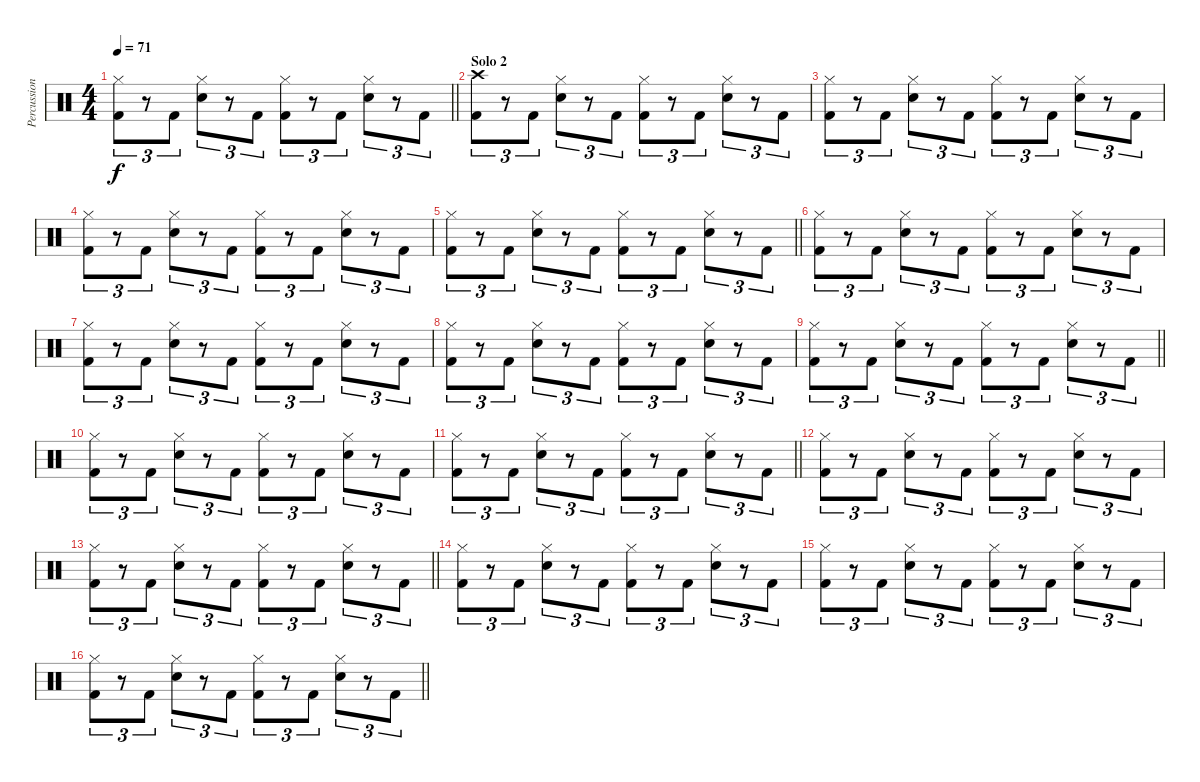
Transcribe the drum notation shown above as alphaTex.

\track ("Percussion" "Percussion") {instrument percussion}
\staff {score}
\articulation defaults
\ts (4 4)
\tempo 71
\clef neutral
\barLineRight lightlight
\ks c
("Hi-Hat (closed)" "Kick (hit) 2").8{tu (3 2) dy f} r.8{tu (3 2)} "Kick (hit) 2".8{tu (3 2)} ("Hi-Hat (closed)" "Snare (hit) 2").8{tu (3 2)} r.8{tu (3 2)} "Kick (hit) 2".8{tu (3 2)} ("Hi-Hat (closed)" "Kick (hit) 2").8{tu (3 2)} r.8{tu (3 2)} "Kick (hit) 2".8{tu (3 2)} ("Hi-Hat (closed)" "Snare (hit) 2").8{tu (3 2)} r.8{tu (3 2)} "Kick (hit) 2".8{tu (3 2)} |
\section ("" "Solo 2")
("Crash high (hit)" "Kick (hit) 2").8{tu (3 2)} r.8{tu (3 2)} "Kick (hit) 2".8{tu (3 2)} ("Hi-Hat (closed)" "Snare (hit) 2").8{tu (3 2)} r.8{tu (3 2)} "Kick (hit) 2".8{tu (3 2)} ("Hi-Hat (closed)" "Kick (hit) 2").8{tu (3 2)} r.8{tu (3 2)} "Kick (hit) 2".8{tu (3 2)} ("Hi-Hat (closed)" "Snare (hit) 2").8{tu (3 2)} r.8{tu (3 2)} "Kick (hit) 2".8{tu (3 2)} |
("Hi-Hat (closed)" "Kick (hit) 2").8{tu (3 2)} r.8{tu (3 2)} "Kick (hit) 2".8{tu (3 2)} ("Hi-Hat (closed)" "Snare (hit) 2").8{tu (3 2)} r.8{tu (3 2)} "Kick (hit) 2".8{tu (3 2)} ("Hi-Hat (closed)" "Kick (hit) 2").8{tu (3 2)} r.8{tu (3 2)} "Kick (hit) 2".8{tu (3 2)} ("Hi-Hat (closed)" "Snare (hit) 2").8{tu (3 2)} r.8{tu (3 2)} "Kick (hit) 2".8{tu (3 2)} |
("Hi-Hat (closed)" "Kick (hit) 2").8{tu (3 2)} r.8{tu (3 2)} "Kick (hit) 2".8{tu (3 2)} ("Hi-Hat (closed)" "Snare (hit) 2").8{tu (3 2)} r.8{tu (3 2)} "Kick (hit) 2".8{tu (3 2)} ("Hi-Hat (closed)" "Kick (hit) 2").8{tu (3 2)} r.8{tu (3 2)} "Kick (hit) 2".8{tu (3 2)} ("Hi-Hat (closed)" "Snare (hit) 2").8{tu (3 2)} r.8{tu (3 2)} "Kick (hit) 2".8{tu (3 2)} |
\barLineRight lightlight
("Hi-Hat (closed)" "Kick (hit) 2").8{tu (3 2)} r.8{tu (3 2)} "Kick (hit) 2".8{tu (3 2)} ("Hi-Hat (closed)" "Snare (hit) 2").8{tu (3 2)} r.8{tu (3 2)} "Kick (hit) 2".8{tu (3 2)} ("Hi-Hat (closed)" "Kick (hit) 2").8{tu (3 2)} r.8{tu (3 2)} "Kick (hit) 2".8{tu (3 2)} ("Hi-Hat (closed)" "Snare (hit) 2").8{tu (3 2)} r.8{tu (3 2)} "Kick (hit) 2".8{tu (3 2)} |
("Hi-Hat (closed)" "Kick (hit) 2").8{tu (3 2)} r.8{tu (3 2)} "Kick (hit) 2".8{tu (3 2)} ("Hi-Hat (closed)" "Snare (hit) 2").8{tu (3 2)} r.8{tu (3 2)} "Kick (hit) 2".8{tu (3 2)} ("Hi-Hat (closed)" "Kick (hit) 2").8{tu (3 2)} r.8{tu (3 2)} "Kick (hit) 2".8{tu (3 2)} ("Hi-Hat (closed)" "Snare (hit) 2").8{tu (3 2)} r.8{tu (3 2)} "Kick (hit) 2".8{tu (3 2)} |
("Hi-Hat (closed)" "Kick (hit) 2").8{tu (3 2)} r.8{tu (3 2)} "Kick (hit) 2".8{tu (3 2)} ("Hi-Hat (closed)" "Snare (hit) 2").8{tu (3 2)} r.8{tu (3 2)} "Kick (hit) 2".8{tu (3 2)} ("Hi-Hat (closed)" "Kick (hit) 2").8{tu (3 2)} r.8{tu (3 2)} "Kick (hit) 2".8{tu (3 2)} ("Hi-Hat (closed)" "Snare (hit) 2").8{tu (3 2)} r.8{tu (3 2)} "Kick (hit) 2".8{tu (3 2)} |
("Hi-Hat (closed)" "Kick (hit) 2").8{tu (3 2)} r.8{tu (3 2)} "Kick (hit) 2".8{tu (3 2)} ("Hi-Hat (closed)" "Snare (hit) 2").8{tu (3 2)} r.8{tu (3 2)} "Kick (hit) 2".8{tu (3 2)} ("Hi-Hat (closed)" "Kick (hit) 2").8{tu (3 2)} r.8{tu (3 2)} "Kick (hit) 2".8{tu (3 2)} ("Hi-Hat (closed)" "Snare (hit) 2").8{tu (3 2)} r.8{tu (3 2)} "Kick (hit) 2".8{tu (3 2)} |
\barLineRight lightlight
("Hi-Hat (closed)" "Kick (hit) 2").8{tu (3 2)} r.8{tu (3 2)} "Kick (hit) 2".8{tu (3 2)} ("Hi-Hat (closed)" "Snare (hit) 2").8{tu (3 2)} r.8{tu (3 2)} "Kick (hit) 2".8{tu (3 2)} ("Hi-Hat (closed)" "Kick (hit) 2").8{tu (3 2)} r.8{tu (3 2)} "Kick (hit) 2".8{tu (3 2)} ("Hi-Hat (closed)" "Snare (hit) 2").8{tu (3 2)} r.8{tu (3 2)} "Kick (hit) 2".8{tu (3 2)} |
("Hi-Hat (closed)" "Kick (hit) 2").8{tu (3 2)} r.8{tu (3 2)} "Kick (hit) 2".8{tu (3 2)} ("Hi-Hat (closed)" "Snare (hit) 2").8{tu (3 2)} r.8{tu (3 2)} "Kick (hit) 2".8{tu (3 2)} ("Hi-Hat (closed)" "Kick (hit) 2").8{tu (3 2)} r.8{tu (3 2)} "Kick (hit) 2".8{tu (3 2)} ("Hi-Hat (closed)" "Snare (hit) 2").8{tu (3 2)} r.8{tu (3 2)} "Kick (hit) 2".8{tu (3 2)} |
\barLineRight lightlight
("Hi-Hat (closed)" "Kick (hit) 2").8{tu (3 2)} r.8{tu (3 2)} "Kick (hit) 2".8{tu (3 2)} ("Hi-Hat (closed)" "Snare (hit) 2").8{tu (3 2)} r.8{tu (3 2)} "Kick (hit) 2".8{tu (3 2)} ("Hi-Hat (closed)" "Kick (hit) 2").8{tu (3 2)} r.8{tu (3 2)} "Kick (hit) 2".8{tu (3 2)} ("Hi-Hat (closed)" "Snare (hit) 2").8{tu (3 2)} r.8{tu (3 2)} "Kick (hit) 2".8{tu (3 2)} |
("Hi-Hat (closed)" "Kick (hit) 2").8{tu (3 2)} r.8{tu (3 2)} "Kick (hit) 2".8{tu (3 2)} ("Hi-Hat (closed)" "Snare (hit) 2").8{tu (3 2)} r.8{tu (3 2)} "Kick (hit) 2".8{tu (3 2)} ("Hi-Hat (closed)" "Kick (hit) 2").8{tu (3 2)} r.8{tu (3 2)} "Kick (hit) 2".8{tu (3 2)} ("Hi-Hat (closed)" "Snare (hit) 2").8{tu (3 2)} r.8{tu (3 2)} "Kick (hit) 2".8{tu (3 2)} |
\barLineRight lightlight
("Hi-Hat (closed)" "Kick (hit) 2").8{tu (3 2)} r.8{tu (3 2)} "Kick (hit) 2".8{tu (3 2)} ("Hi-Hat (closed)" "Snare (hit) 2").8{tu (3 2)} r.8{tu (3 2)} "Kick (hit) 2".8{tu (3 2)} ("Hi-Hat (closed)" "Kick (hit) 2").8{tu (3 2)} r.8{tu (3 2)} "Kick (hit) 2".8{tu (3 2)} ("Hi-Hat (closed)" "Snare (hit) 2").8{tu (3 2)} r.8{tu (3 2)} "Kick (hit) 2".8{tu (3 2)} |
("Hi-Hat (closed)" "Kick (hit) 2").8{tu (3 2)} r.8{tu (3 2)} "Kick (hit) 2".8{tu (3 2)} ("Hi-Hat (closed)" "Snare (hit) 2").8{tu (3 2)} r.8{tu (3 2)} "Kick (hit) 2".8{tu (3 2)} ("Hi-Hat (closed)" "Kick (hit) 2").8{tu (3 2)} r.8{tu (3 2)} "Kick (hit) 2".8{tu (3 2)} ("Hi-Hat (closed)" "Snare (hit) 2").8{tu (3 2)} r.8{tu (3 2)} "Kick (hit) 2".8{tu (3 2)} |
("Hi-Hat (closed)" "Kick (hit) 2").8{tu (3 2)} r.8{tu (3 2)} "Kick (hit) 2".8{tu (3 2)} ("Hi-Hat (closed)" "Snare (hit) 2").8{tu (3 2)} r.8{tu (3 2)} "Kick (hit) 2".8{tu (3 2)} ("Hi-Hat (closed)" "Kick (hit) 2").8{tu (3 2)} r.8{tu (3 2)} "Kick (hit) 2".8{tu (3 2)} ("Hi-Hat (closed)" "Snare (hit) 2").8{tu (3 2)} r.8{tu (3 2)} "Kick (hit) 2".8{tu (3 2)} |
\barLineRight lightlight
("Hi-Hat (closed)" "Kick (hit) 2").8{tu (3 2)} r.8{tu (3 2)} "Kick (hit) 2".8{tu (3 2)} ("Hi-Hat (closed)" "Snare (hit) 2").8{tu (3 2)} r.8{tu (3 2)} "Kick (hit) 2".8{tu (3 2)} ("Hi-Hat (closed)" "Kick (hit) 2").8{tu (3 2)} r.8{tu (3 2)} "Kick (hit) 2".8{tu (3 2)} ("Hi-Hat (closed)" "Snare (hit) 2").8{tu (3 2)} r.8{tu (3 2)} "Kick (hit) 2".8{tu (3 2)}
